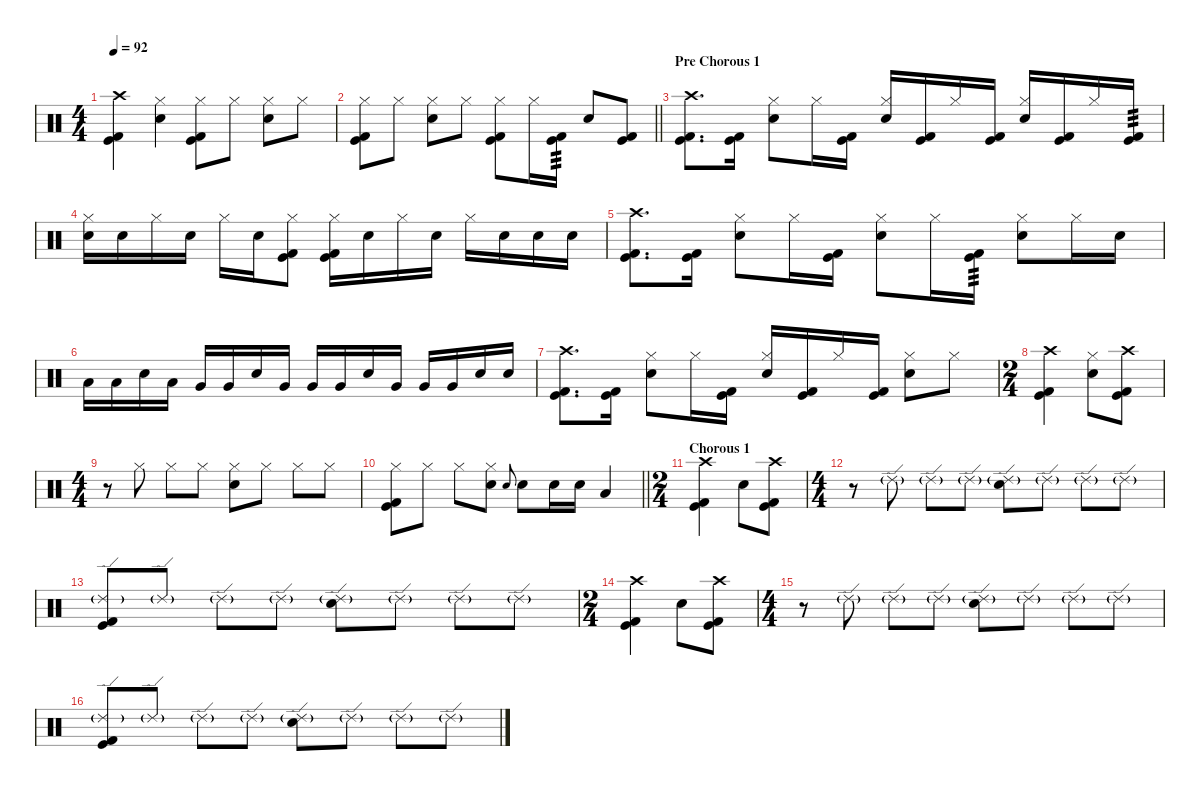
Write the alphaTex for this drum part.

\defaultSystemsLayout 4
\hideDynamics
\bracketExtendMode nobrackets
\singleTrackTrackNamePolicy hidden
\multiTrackTrackNamePolicy hidden
\otherSystemsTrackNameOrientation horizontal
\track ("Lars" "drm.") {instrument percussion}
\staff {score}
\articulation defaults
\ts (4 4)
\tempo 92
\clef neutral
\ks c
("Crash high (hit)" "Kick (hit)" "Kick (hit) 2").4{dy f beam Down} ("Hi-Hat (closed)" "Snare (hit) 2").4{beam Down} ("Hi-Hat (closed)" "Kick (hit)" "Kick (hit) 2").8{beam Down} "Hi-Hat (closed)".8{beam Down} ("Hi-Hat (closed)" "Snare (hit) 2").8{beam Down} "Hi-Hat (closed)".8{beam Down} |
\barLineRight lightlight
("Hi-Hat (closed)" "Kick (hit)" "Kick (hit) 2").8{beam Down} "Hi-Hat (closed)".8{beam Down} ("Hi-Hat (closed)" "Snare (hit) 2").8{beam Down} "Hi-Hat (closed)".8{beam Down} ("Hi-Hat (closed)" "Kick (hit)" "Kick (hit) 2").8{beam Down} "Hi-Hat (closed)".16{beam Down} ("Kick (hit)" "Kick (hit) 2").16{tp 3 beam Down} "Snare (hit) 2".8{beam Up} ("Kick (hit)" "Kick (hit) 2").8{beam Up} |
\section ("" "Pre Chorous 1")
("Crash high (hit)" "Kick (hit)" "Kick (hit) 2").8{d beam Down} ("Kick (hit)" "Kick (hit) 2").16{beam Down} ("Hi-Hat (closed)" "Snare (hit) 2").8{beam Down} "Hi-Hat (closed)".16{beam Down} ("Kick (hit)" "Kick (hit) 2").16{beam Down} ("Hi-Hat (closed)" "Snare (hit) 2").16{beam Up} ("Kick (hit)" "Kick (hit) 2").16{beam Up} "Hi-Hat (closed)".16{beam Up} ("Kick (hit)" "Kick (hit) 2").16{beam Up} ("Hi-Hat (closed)" "Snare (hit) 2").16{beam Up} ("Kick (hit)" "Kick (hit) 2").16{beam Up} "Hi-Hat (closed)".16{beam Up} ("Kick (hit)" "Kick (hit) 2").16{tp 3 beam Up} |
("Hi-Hat (closed)" "Snare (hit) 2").16{beam Down} "Snare (hit) 2".16{beam Down} "Hi-Hat (closed)".16{beam Down} "Snare (hit) 2".16{beam Down} "Hi-Hat (closed)".16{beam Down} "Snare (hit) 2".16{beam Down} ("Hi-Hat (closed)" "Kick (hit)" "Kick (hit) 2").8{beam Down} ("Hi-Hat (closed)" "Kick (hit)" "Kick (hit) 2").16{beam Down} "Snare (hit) 2".16{beam Down} "Hi-Hat (closed)".16{beam Down} "Snare (hit) 2".16{beam Down} "Hi-Hat (closed)".16{beam Down} "Snare (hit) 2".16{beam Down} "Snare (hit) 2".16{beam Down} "Snare (hit) 2".16{beam Down} |
("Crash high (hit)" "Kick (hit)" "Kick (hit) 2").8{d beam Down} ("Kick (hit)" "Kick (hit) 2").16{beam Down} ("Hi-Hat (closed)" "Snare (hit) 2").8{beam Down} "Hi-Hat (closed)".16{beam Down} ("Kick (hit)" "Kick (hit) 2").16{beam Down} ("Hi-Hat (closed)" "Snare (hit) 2").8{beam Down} "Hi-Hat (closed)".16{beam Down} ("Kick (hit)" "Kick (hit) 2").16{tp 3 beam Down} ("Hi-Hat (closed)" "Snare (hit) 2").8{beam Down} "Hi-Hat (closed)".16{beam Down} "Snare (hit) 2".16{beam Down} |
"Low Tom (hit)".16{beam Down} "Low Tom (hit)".16{beam Down} "Snare (hit) 2".16{beam Down} "Low Tom (hit)".16{beam Down} "Very Low Tom (hit)".16{beam Up} "Very Low Tom (hit)".16{beam Up} "Snare (hit) 2".16{beam Up} "Very Low Tom (hit)".16{beam Up} "Very Low Tom (hit)".16{beam Up} "Very Low Tom (hit)".16{beam Up} "Snare (hit) 2".16{beam Up} "Very Low Tom (hit)".16{beam Up} "Very Low Tom (hit)".16{beam Up} "Very Low Tom (hit)".16{beam Up} "Snare (hit) 2".16{beam Up} "Snare (hit) 2".16{beam Up} |
("Crash high (hit)" "Kick (hit)" "Kick (hit) 2").8{d beam Down} ("Kick (hit)" "Kick (hit) 2").16{beam Down} ("Hi-Hat (closed)" "Snare (hit) 2").8{beam Down} "Hi-Hat (closed)".16{beam Down} ("Kick (hit)" "Kick (hit) 2").16{beam Down} ("Hi-Hat (closed)" "Snare (hit) 2").16{beam Up} ("Kick (hit)" "Kick (hit) 2").16{beam Up} "Hi-Hat (closed)".16{beam Up} ("Kick (hit)" "Kick (hit) 2").16{beam Up} ("Hi-Hat (closed)" "Snare (hit) 2").8{beam Down} "Hi-Hat (closed)".8{beam Down} |
\ts (2 4)
\beaming (8 2 2)
("Crash high (hit)" "Kick (hit)" "Kick (hit) 2").4{beam Down} ("Hi-Hat (closed)" "Snare (hit) 2").8{beam Down} ("Crash high (hit)" "Kick (hit)" "Kick (hit) 2").8{beam Down} |
\ts (4 4)
\beaming (8 2 2 2 2)
r.8{beam Down} "Hi-Hat (closed)".8{beam Down} "Hi-Hat (closed)".8{beam Down} "Hi-Hat (closed)".8{beam Down} ("Hi-Hat (closed)" "Snare (hit) 2").8{beam Down} "Hi-Hat (closed)".8{beam Down} "Hi-Hat (closed)".8{beam Down} "Hi-Hat (closed)".8{beam Down} |
\barLineRight lightlight
("Hi-Hat (closed)" "Kick (hit)" "Kick (hit) 2").8{beam Down} "Hi-Hat (closed)".8{beam Down} "Hi-Hat (closed)".8{beam Down} ("Hi-Hat (closed)" "Snare (hit) 2").8{beam Down} "Electric Snare (hit)".8{gr onbeat dy mf beam Up} "Snare (hit) 2".8{dy f beam Down} "Snare (hit) 2".16{beam Down} "Snare (hit) 2".16{beam Down} "Low Tom (hit)".4{beam Up} |
\ts (2 4)
\beaming (8 2 2)
\section ("" "Chorous 1")
("Crash high (hit)" "Kick (hit)" "Kick (hit) 2").4{beam Down} "Snare (hit) 2".8{beam Down} ("Crash high (hit)" "Kick (hit)" "Kick (hit) 2").8{beam Down} |
\ts (4 4)
\beaming (8 2 2 2 2)
r.8{beam Down} "Ride (edge) 2"{g}.8{dy mf beam Down} "Ride (edge) 2"{g}.8{beam Down} "Ride (edge) 2"{g}.8{beam Down} ("Ride (edge) 2"{g} "Snare (hit) 2").8{dy f beam Down} "Ride (edge) 2"{g}.8{dy mf beam Down} "Ride (edge) 2"{g}.8{beam Down} "Ride (edge) 2"{g}.8{beam Down} |
("Ride (edge) 2"{g} "Kick (hit)" "Kick (hit) 2").8{dy f beam Up} "Ride (edge) 2"{g}.8{dy mf beam Up} "Ride (edge) 2"{g}.8{beam Down} "Ride (edge) 2"{g}.8{beam Down} ("Ride (edge) 2"{g} "Snare (hit) 2").8{dy f beam Down} "Ride (edge) 2"{g}.8{dy mf beam Down} "Ride (edge) 2"{g}.8{beam Down} "Ride (edge) 2"{g}.8{beam Down} |
\ts (2 4)
\beaming (8 2 2 2 2)
("Crash high (hit)" "Kick (hit)" "Kick (hit) 2").4{dy f beam Down} "Snare (hit) 2".8{beam Down} ("Crash high (hit)" "Kick (hit)" "Kick (hit) 2").8{beam Down} |
\ts (4 4)
\beaming (8 2 2 2 2)
r.8{beam Down} "Ride (edge) 2"{g}.8{dy mf beam Down} "Ride (edge) 2"{g}.8{beam Down} "Ride (edge) 2"{g}.8{beam Down} ("Ride (edge) 2"{g} "Snare (hit) 2").8{dy f beam Down} "Ride (edge) 2"{g}.8{dy mf beam Down} "Ride (edge) 2"{g}.8{beam Down} "Ride (edge) 2"{g}.8{beam Down} |
("Ride (edge) 2"{g} "Kick (hit)" "Kick (hit) 2").8{dy f beam Up} "Ride (edge) 2"{g}.8{dy mf beam Up} "Ride (edge) 2"{g}.8{beam Down} "Ride (edge) 2"{g}.8{beam Down} ("Ride (edge) 2"{g} "Snare (hit) 2").8{dy f beam Down} "Ride (edge) 2"{g}.8{dy mf beam Down} "Ride (edge) 2"{g}.8{beam Down} "Ride (edge) 2"{g}.8{beam Down}
